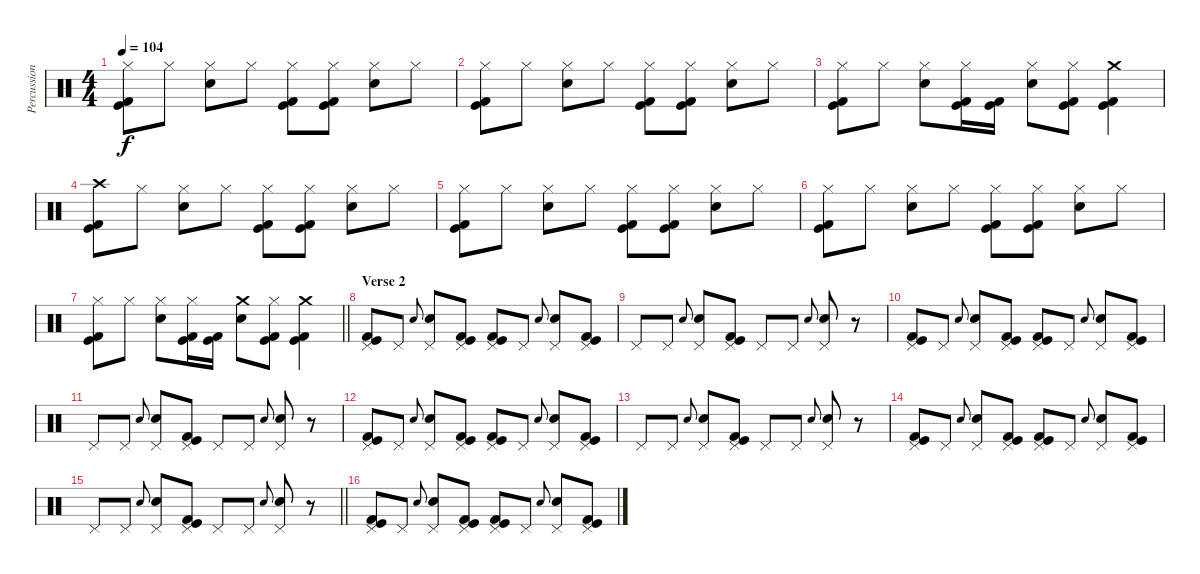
\track ("Percussion" "Percussion") {instrument percussion}
\staff {score}
\articulation defaults
\ts (4 4)
\tempo 104
\clef neutral
\ks c
("Hi-Hat (closed)" "Kick (hit)" "Kick (hit) 2").8{dy f} "Hi-Hat (closed)".8 ("Hi-Hat (closed)" "Electric Snare (hit)").8 "Hi-Hat (closed)".8 ("Hi-Hat (closed)" "Kick (hit)" "Kick (hit) 2").8 ("Hi-Hat (closed)" "Kick (hit)" "Kick (hit) 2").8 ("Hi-Hat (closed)" "Electric Snare (hit)").8 "Hi-Hat (closed)".8 |
("Hi-Hat (closed)" "Kick (hit)" "Kick (hit) 2").8 "Hi-Hat (closed)".8 ("Hi-Hat (closed)" "Electric Snare (hit)").8 "Hi-Hat (closed)".8 ("Hi-Hat (closed)" "Kick (hit)" "Kick (hit) 2").8 ("Hi-Hat (closed)" "Kick (hit)" "Kick (hit) 2").8 ("Hi-Hat (closed)" "Electric Snare (hit)").8 "Hi-Hat (closed)".8 |
("Hi-Hat (closed)" "Kick (hit)" "Kick (hit) 2").8 "Hi-Hat (closed)".8 ("Hi-Hat (closed)" "Electric Snare (hit)").8 ("Hi-Hat (closed)" "Kick (hit)" "Kick (hit) 2").16 ("Kick (hit)" "Kick (hit) 2").16 ("Hi-Hat (closed)" "Electric Snare (hit)").8 ("Hi-Hat (closed)" "Kick (hit)" "Kick (hit) 2").8 ("Crash medium (hit)" "Kick (hit)" "Kick (hit) 2").4 |
("Crash high (hit)" "Kick (hit)" "Kick (hit) 2").8 "Hi-Hat (closed)".8 ("Hi-Hat (closed)" "Electric Snare (hit)").8 "Hi-Hat (closed)".8 ("Hi-Hat (closed)" "Kick (hit)" "Kick (hit) 2").8 ("Hi-Hat (closed)" "Kick (hit)" "Kick (hit) 2").8 ("Hi-Hat (closed)" "Electric Snare (hit)").8 "Hi-Hat (closed)".8 |
("Hi-Hat (closed)" "Kick (hit)" "Kick (hit) 2").8 "Hi-Hat (closed)".8 ("Hi-Hat (closed)" "Electric Snare (hit)").8 "Hi-Hat (closed)".8 ("Hi-Hat (closed)" "Kick (hit)" "Kick (hit) 2").8 ("Hi-Hat (closed)" "Kick (hit)" "Kick (hit) 2").8 ("Hi-Hat (closed)" "Electric Snare (hit)").8 "Hi-Hat (closed)".8 |
("Hi-Hat (closed)" "Kick (hit)" "Kick (hit) 2").8 "Hi-Hat (closed)".8 ("Hi-Hat (closed)" "Electric Snare (hit)").8 "Hi-Hat (closed)".8 ("Hi-Hat (closed)" "Kick (hit)" "Kick (hit) 2").8 ("Hi-Hat (closed)" "Kick (hit)" "Kick (hit) 2").8 ("Hi-Hat (closed)" "Electric Snare (hit)").8 "Hi-Hat (closed)".8 |
\barLineRight lightlight
("Hi-Hat (closed)" "Kick (hit)" "Kick (hit) 2").8 "Hi-Hat (closed)".8 ("Hi-Hat (closed)" "Electric Snare (hit)").8 ("Hi-Hat (closed)" "Kick (hit)" "Kick (hit) 2").16 ("Kick (hit)" "Kick (hit) 2").16 ("Crash medium (hit)" "Electric Snare (hit)").8 ("Hi-Hat (closed)" "Kick (hit)" "Kick (hit) 2").8 ("Crash medium (hit)" "Kick (hit)" "Kick (hit) 2").4 |
\section ("" "Verse 2")
("Pedal Hi-Hat (hit)" "Kick (hit)" "Kick (hit) 2").8 "Pedal Hi-Hat (hit)".8 "Electric Snare (hit)".8{gr onbeat} ("Pedal Hi-Hat (hit)" "Electric Snare (hit)").8 ("Pedal Hi-Hat (hit)" "Kick (hit)" "Kick (hit) 2").8 ("Pedal Hi-Hat (hit)" "Kick (hit)" "Kick (hit) 2").8 "Pedal Hi-Hat (hit)".8 "Electric Snare (hit)".8{gr onbeat} ("Pedal Hi-Hat (hit)" "Electric Snare (hit)").8 ("Pedal Hi-Hat (hit)" "Kick (hit)" "Kick (hit) 2").8 |
"Pedal Hi-Hat (hit)".8 "Pedal Hi-Hat (hit)".8 "Electric Snare (hit)".8{gr onbeat} ("Pedal Hi-Hat (hit)" "Electric Snare (hit)").8 ("Pedal Hi-Hat (hit)" "Kick (hit)" "Kick (hit) 2").8 "Pedal Hi-Hat (hit)".8 "Pedal Hi-Hat (hit)".8 "Electric Snare (hit)".8{gr onbeat} ("Pedal Hi-Hat (hit)" "Electric Snare (hit)").8 r.8 |
("Pedal Hi-Hat (hit)" "Kick (hit)" "Kick (hit) 2").8 "Pedal Hi-Hat (hit)".8 "Electric Snare (hit)".8{gr onbeat} ("Pedal Hi-Hat (hit)" "Electric Snare (hit)").8 ("Pedal Hi-Hat (hit)" "Kick (hit)" "Kick (hit) 2").8 ("Pedal Hi-Hat (hit)" "Kick (hit)" "Kick (hit) 2").8 "Pedal Hi-Hat (hit)".8 "Electric Snare (hit)".8{gr onbeat} ("Pedal Hi-Hat (hit)" "Electric Snare (hit)").8 ("Pedal Hi-Hat (hit)" "Kick (hit)" "Kick (hit) 2").8 |
"Pedal Hi-Hat (hit)".8 "Pedal Hi-Hat (hit)".8 "Electric Snare (hit)".8{gr onbeat} ("Pedal Hi-Hat (hit)" "Electric Snare (hit)").8 ("Pedal Hi-Hat (hit)" "Kick (hit)" "Kick (hit) 2").8 "Pedal Hi-Hat (hit)".8 "Pedal Hi-Hat (hit)".8 "Electric Snare (hit)".8{gr onbeat} ("Pedal Hi-Hat (hit)" "Electric Snare (hit)").8 r.8 |
("Pedal Hi-Hat (hit)" "Kick (hit)" "Kick (hit) 2").8 "Pedal Hi-Hat (hit)".8 "Electric Snare (hit)".8{gr onbeat} ("Pedal Hi-Hat (hit)" "Electric Snare (hit)").8 ("Pedal Hi-Hat (hit)" "Kick (hit)" "Kick (hit) 2").8 ("Pedal Hi-Hat (hit)" "Kick (hit)" "Kick (hit) 2").8 "Pedal Hi-Hat (hit)".8 "Electric Snare (hit)".8{gr onbeat} ("Pedal Hi-Hat (hit)" "Electric Snare (hit)").8 ("Pedal Hi-Hat (hit)" "Kick (hit)" "Kick (hit) 2").8 |
"Pedal Hi-Hat (hit)".8 "Pedal Hi-Hat (hit)".8 "Electric Snare (hit)".8{gr onbeat} ("Pedal Hi-Hat (hit)" "Electric Snare (hit)").8 ("Pedal Hi-Hat (hit)" "Kick (hit)" "Kick (hit) 2").8 "Pedal Hi-Hat (hit)".8 "Pedal Hi-Hat (hit)".8 "Electric Snare (hit)".8{gr onbeat} ("Pedal Hi-Hat (hit)" "Electric Snare (hit)").8 r.8 |
("Pedal Hi-Hat (hit)" "Kick (hit)" "Kick (hit) 2").8 "Pedal Hi-Hat (hit)".8 "Electric Snare (hit)".8{gr onbeat} ("Pedal Hi-Hat (hit)" "Electric Snare (hit)").8 ("Pedal Hi-Hat (hit)" "Kick (hit)" "Kick (hit) 2").8 ("Pedal Hi-Hat (hit)" "Kick (hit)" "Kick (hit) 2").8 "Pedal Hi-Hat (hit)".8 "Electric Snare (hit)".8{gr onbeat} ("Pedal Hi-Hat (hit)" "Electric Snare (hit)").8 ("Pedal Hi-Hat (hit)" "Kick (hit)" "Kick (hit) 2").8 |
\barLineRight lightlight "Pedal Hi-Hat (hit)".8 "Pedal Hi-Hat (hit)".8 "Electric Snare (hit)".8{gr onbeat}
("Pedal Hi-Hat (hit)" "Electric Snare (hit)").8 ("Pedal Hi-Hat (hit)" "Kick (hit)" "Kick (hit) 2").8 "Pedal Hi-Hat (hit)".8 "Pedal Hi-Hat (hit)".8 "Electric Snare (hit)".8{gr onbeat} ("Pedal Hi-Hat (hit)" "Electric Snare (hit)").8 r.8 |
\section ("" "")
("Pedal Hi-Hat (hit)" "Kick (hit)" "Kick (hit) 2").8 "Pedal Hi-Hat (hit)".8 "Electric Snare (hit)".8{gr onbeat} ("Pedal Hi-Hat (hit)" "Electric Snare (hit)").8 ("Pedal Hi-Hat (hit)" "Kick (hit)" "Kick (hit) 2").8 ("Pedal Hi-Hat (hit)" "Kick (hit)" "Kick (hit) 2").8 "Pedal Hi-Hat (hit)".8 "Electric Snare (hit)".8{gr onbeat} ("Pedal Hi-Hat (hit)" "Electric Snare (hit)").8 ("Pedal Hi-Hat (hit)" "Kick (hit)" "Kick (hit) 2").8
